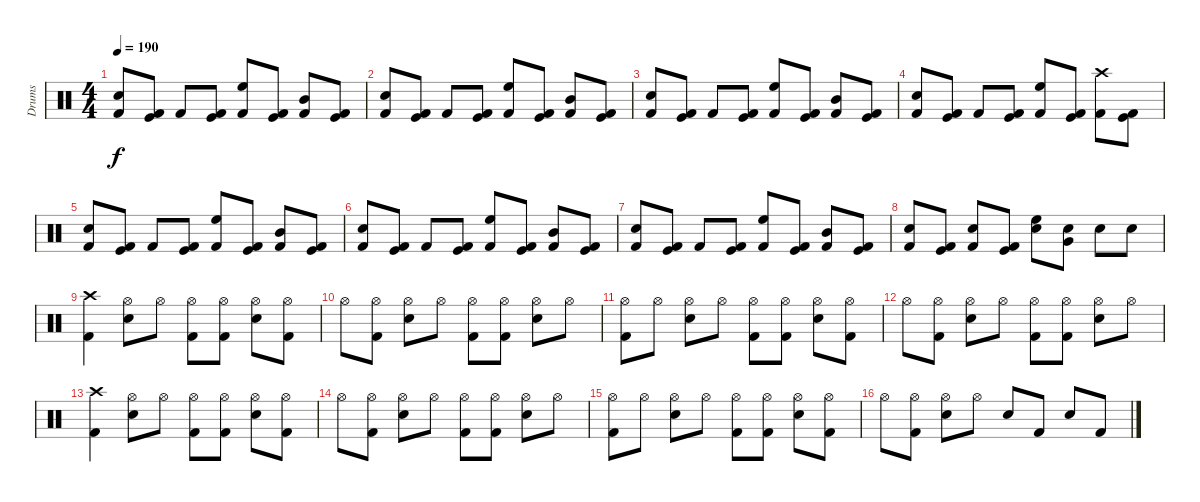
\track ("Drums" "Drums") {instrument percussion}
\staff {score}
\articulation defaults
\ts (4 4)
\tempo 190
\clef neutral
\ks c
("Electric Snare (hit)" "Kick (hit) 2").8{dy f} ("Kick (hit)" "Kick (hit) 2").8 "Kick (hit) 2".8 ("Kick (hit)" "Kick (hit) 2").8 ("High Floor Tom (hit)" "Kick (hit) 2").8 ("Kick (hit)" "Kick (hit) 2").8 ("Mid Tom (hit)" "Kick (hit) 2").8 ("Kick (hit)" "Kick (hit) 2").8 |
("Electric Snare (hit)" "Kick (hit) 2").8 ("Kick (hit)" "Kick (hit) 2").8 "Kick (hit) 2".8 ("Kick (hit)" "Kick (hit) 2").8 ("High Floor Tom (hit)" "Kick (hit) 2").8 ("Kick (hit)" "Kick (hit) 2").8 ("Mid Tom (hit)" "Kick (hit) 2").8 ("Kick (hit)" "Kick (hit) 2").8 |
("Electric Snare (hit)" "Kick (hit) 2").8 ("Kick (hit)" "Kick (hit) 2").8 "Kick (hit) 2".8 ("Kick (hit)" "Kick (hit) 2").8 ("High Floor Tom (hit)" "Kick (hit) 2").8 ("Kick (hit)" "Kick (hit) 2").8 ("Mid Tom (hit)" "Kick (hit) 2").8 ("Kick (hit)" "Kick (hit) 2").8 |
("Electric Snare (hit)" "Kick (hit) 2").8 ("Kick (hit)" "Kick (hit) 2").8 "Kick (hit) 2".8 ("Kick (hit)" "Kick (hit) 2").8 ("High Floor Tom (hit)" "Kick (hit) 2").8 ("Kick (hit)" "Kick (hit) 2").8 ("Crash high (hit)" "Kick (hit) 2").8 ("Kick (hit)" "Kick (hit) 2").8 |
("Electric Snare (hit)" "Kick (hit) 2").8 ("Kick (hit)" "Kick (hit) 2").8 "Kick (hit) 2".8 ("Kick (hit)" "Kick (hit) 2").8 ("High Floor Tom (hit)" "Kick (hit) 2").8 ("Kick (hit)" "Kick (hit) 2").8 ("Mid Tom (hit)" "Kick (hit) 2").8 ("Kick (hit)" "Kick (hit) 2").8 |
("Electric Snare (hit)" "Kick (hit) 2").8 ("Kick (hit)" "Kick (hit) 2").8 "Kick (hit) 2".8 ("Kick (hit)" "Kick (hit) 2").8 ("High Floor Tom (hit)" "Kick (hit) 2").8 ("Kick (hit)" "Kick (hit) 2").8 ("Mid Tom (hit)" "Kick (hit) 2").8 ("Kick (hit)" "Kick (hit) 2").8 |
("Electric Snare (hit)" "Kick (hit) 2").8 ("Kick (hit)" "Kick (hit) 2").8 "Kick (hit) 2".8 ("Kick (hit)" "Kick (hit) 2").8 ("High Floor Tom (hit)" "Kick (hit) 2").8 ("Kick (hit)" "Kick (hit) 2").8 ("Mid Tom (hit)" "Kick (hit) 2").8 ("Kick (hit)" "Kick (hit) 2").8 |
("Electric Snare (hit)" "Kick (hit) 2").8 ("Kick (hit)" "Kick (hit) 2").8 ("Electric Snare (hit)" "Kick (hit) 2").8 ("Kick (hit)" "Kick (hit) 2").8 ("Electric Snare (hit)" "High Floor Tom (hit)").8 ("Electric Snare (hit)" "Very Low Tom (hit)").8 "Electric Snare (hit)".8 "Electric Snare (hit)".8 |
("Crash high (hit)" "Kick (hit) 2").4 ("Hi-Hat (open)" "Electric Snare (hit)").8 "Hi-Hat (open)".8 ("Hi-Hat (open)" "Kick (hit) 2").8 ("Hi-Hat (open)" "Kick (hit) 2").8 ("Hi-Hat (open)" "Electric Snare (hit)").8 ("Hi-Hat (open)" "Kick (hit) 2").8 |
"Hi-Hat (open)".8 ("Hi-Hat (open)" "Kick (hit) 2").8 ("Hi-Hat (open)" "Electric Snare (hit)").8 "Hi-Hat (open)".8 ("Hi-Hat (open)" "Kick (hit) 2").8 ("Hi-Hat (open)" "Kick (hit) 2").8 ("Hi-Hat (open)" "Electric Snare (hit)").8 "Hi-Hat (open)".8 |
("Hi-Hat (open)" "Kick (hit) 2").8 "Hi-Hat (open)".8 ("Hi-Hat (open)" "Electric Snare (hit)").8 "Hi-Hat (open)".8 ("Hi-Hat (open)" "Kick (hit) 2").8 ("Hi-Hat (open)" "Kick (hit) 2").8 ("Hi-Hat (open)" "Electric Snare (hit)").8 ("Hi-Hat (open)" "Kick (hit) 2").8 |
"Hi-Hat (open)".8 ("Hi-Hat (open)" "Kick (hit) 2").8 ("Hi-Hat (open)" "Electric Snare (hit)").8 "Hi-Hat (open)".8 ("Hi-Hat (open)" "Kick (hit) 2").8 ("Hi-Hat (open)" "Kick (hit) 2").8 ("Hi-Hat (open)" "Electric Snare (hit)").8 "Hi-Hat (open)".8 |
("Crash high (hit)" "Kick (hit) 2").4 ("Hi-Hat (open)" "Electric Snare (hit)").8 "Hi-Hat (open)".8 ("Hi-Hat (open)" "Kick (hit) 2").8 ("Hi-Hat (open)" "Kick (hit) 2").8 ("Hi-Hat (open)" "Electric Snare (hit)").8 ("Hi-Hat (open)" "Kick (hit) 2").8 |
"Hi-Hat (open)".8 ("Hi-Hat (open)" "Kick (hit) 2").8 ("Hi-Hat (open)" "Electric Snare (hit)").8 "Hi-Hat (open)".8 ("Hi-Hat (open)" "Kick (hit) 2").8 ("Hi-Hat (open)" "Kick (hit) 2").8 ("Hi-Hat (open)" "Electric Snare (hit)").8 "Hi-Hat (open)".8 |
("Hi-Hat (open)" "Kick (hit) 2").8 "Hi-Hat (open)".8 ("Hi-Hat (open)" "Electric Snare (hit)").8 "Hi-Hat (open)".8 ("Hi-Hat (open)" "Kick (hit) 2").8 ("Hi-Hat (open)" "Kick (hit) 2").8 ("Hi-Hat (open)" "Electric Snare (hit)").8 ("Hi-Hat (open)" "Kick (hit) 2").8 |
"Hi-Hat (open)".8 ("Hi-Hat (open)" "Kick (hit) 2").8 ("Hi-Hat (open)" "Electric Snare (hit)").8 "Hi-Hat (open)".8 "Electric Snare (hit)".8 "Kick (hit) 2".8 "Electric Snare (hit)".8 "Kick (hit) 2".8
